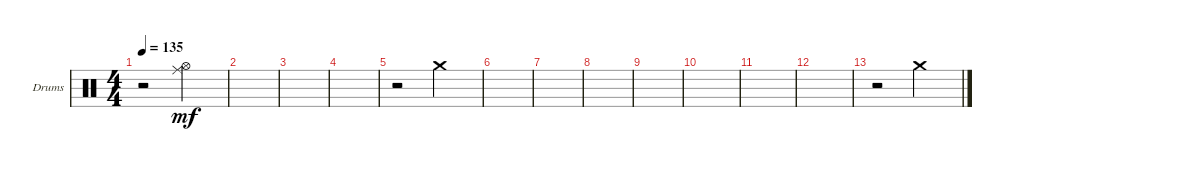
\bracketExtendMode groupsimilarinstruments
\firstSystemTrackNameOrientation horizontal
\otherSystemsTrackNameOrientation horizontal
\track ("OH" "Drums") {instrument percussion}
\staff {score}
\articulation defaults
\ts (4 4)
\tempo 135
\clef neutral
\ks c
r.2{dy mf} ("Ride (middle)" "Hi-Hat (open)").2 |
|
|
|
r.2 "Crash medium (hit)".2 |
|
|
|
|
|
|
|
r.2 "Crash medium (hit)".2
